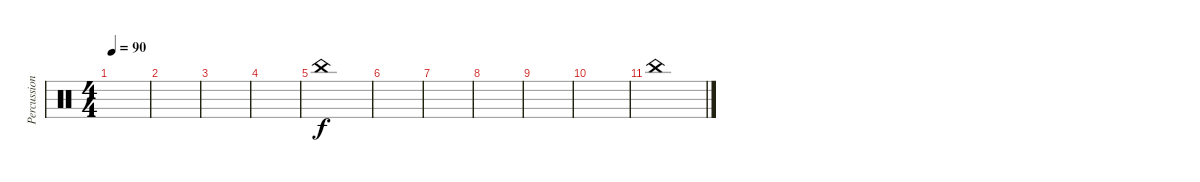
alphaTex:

\track ("Percussion" "Percussion") {instrument percussion}
\staff
\articulation defaults
\ts (4 4)
\tempo 90
\clef neutral
\ks c
|
|
|
|
"China (hit)".1{volume 3 balance 5} |
|
|
|
|
|
"China (hit)".1{volume 3 balance 5}
